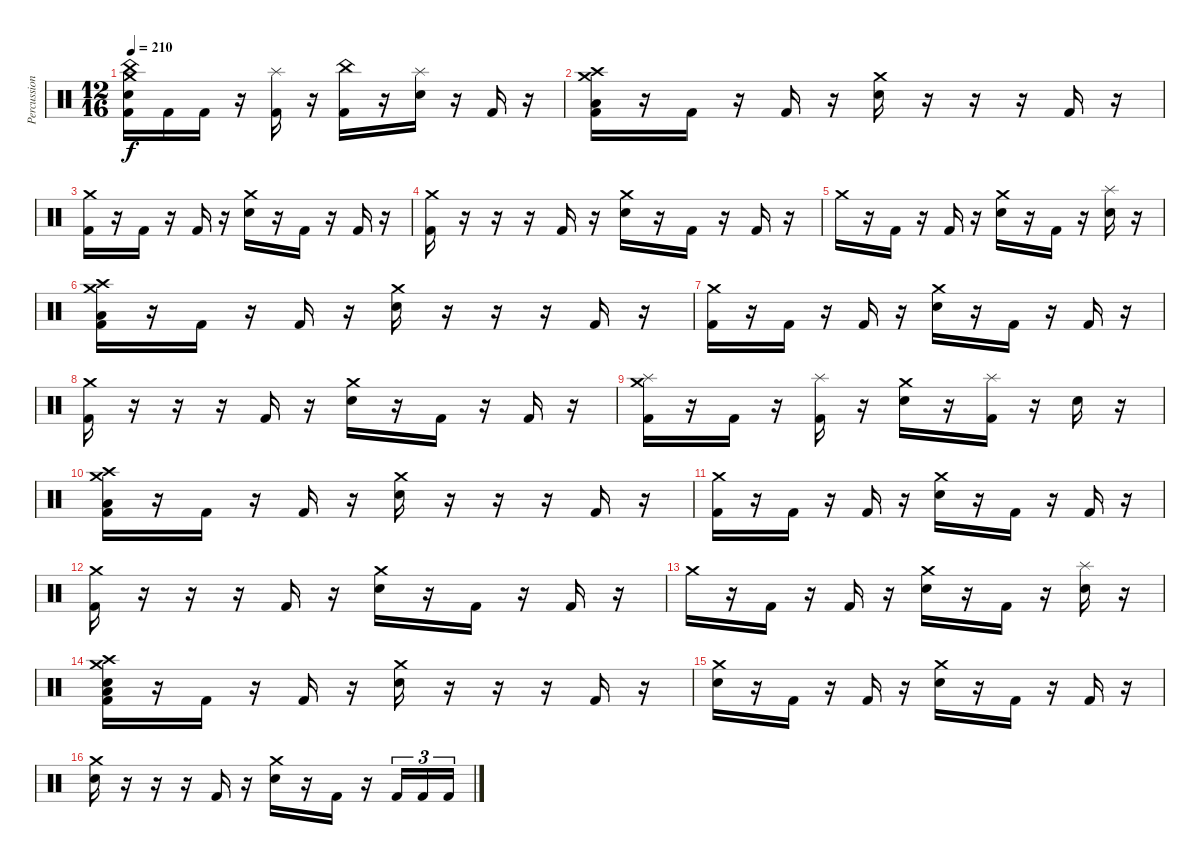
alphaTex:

\track ("Percussion" "Percussion") {instrument percussion}
\staff {score}
\articulation defaults
\ts (12 16)
\tempo 210
\clef neutral
\ks c
("China (hit)" "Crash medium (hit)" "Electric Snare (hit)" "Kick (hit) 2").16{dy f} "Kick (hit) 2".16 "Kick (hit) 2".16 r.16 ("Splash (hit)" "Kick (hit) 2").16 r.16 ("China (hit)" "Kick (hit) 2").16 r.16 ("Splash (hit)" "Electric Snare (hit)").16 r.16 "Kick (hit) 2".16 r.16 |
("Crash medium (hit)" "Crash high (hit)" "Low Floor Tom (hit)" "Kick (hit) 2").16 r.16 "Kick (hit) 2".16 r.16 "Kick (hit) 2".16 r.16 ("Crash medium (hit)" "Electric Snare (hit)").16 r.16 r.16 r.16 "Kick (hit) 2".16 r.16 |
("Crash medium (hit)" "Kick (hit) 2").16 r.16 "Kick (hit) 2".16 r.16 "Kick (hit) 2".16 r.16 ("Crash medium (hit)" "Electric Snare (hit)").16 r.16 "Kick (hit) 2".16 r.16 "Kick (hit) 2".16 r.16 |
("Crash medium (hit)" "Kick (hit) 2").16 r.16 r.16 r.16 "Kick (hit) 2".16 r.16 ("Crash medium (hit)" "Electric Snare (hit)").16 r.16 "Kick (hit) 2".16 r.16 "Kick (hit) 2".16 r.16 |
"Crash medium (hit)".16 r.16 "Kick (hit) 2".16 r.16 "Kick (hit) 2".16 r.16 ("Crash medium (hit)" "Electric Snare (hit)").16 r.16 "Kick (hit) 2".16 r.16 ("Splash (hit)" "Electric Snare (hit)").16 r.16 |
("Crash medium (hit)" "Crash high (hit)" "Low Floor Tom (hit)" "Kick (hit) 2").16 r.16 "Kick (hit) 2".16 r.16 "Kick (hit) 2".16 r.16 ("Crash medium (hit)" "Electric Snare (hit)").16 r.16 r.16 r.16 "Kick (hit) 2".16 r.16 |
("Crash medium (hit)" "Kick (hit) 2").16 r.16 "Kick (hit) 2".16 r.16 "Kick (hit) 2".16 r.16 ("Crash medium (hit)" "Electric Snare (hit)").16 r.16 "Kick (hit) 2".16 r.16 "Kick (hit) 2".16 r.16 |
("Crash medium (hit)" "Kick (hit) 2").16 r.16 r.16 r.16 "Kick (hit) 2".16 r.16 ("Crash medium (hit)" "Electric Snare (hit)").16 r.16 "Kick (hit) 2".16 r.16 "Kick (hit) 2".16 r.16 |
("Crash medium (hit)" "Splash (hit)" "Kick (hit) 2").16 r.16 "Kick (hit) 2".16 r.16 ("Splash (hit)" "Kick (hit) 2").16 r.16 ("Crash medium (hit)" "Electric Snare (hit)").16 r.16 ("Splash (hit)" "Kick (hit) 2").16 r.16 "Electric Snare (hit)".16 r.16 |
("Crash medium (hit)" "Crash high (hit)" "Low Floor Tom (hit)" "Kick (hit) 2").16 r.16 "Kick (hit) 2".16 r.16 "Kick (hit) 2".16 r.16 ("Crash medium (hit)" "Electric Snare (hit)").16 r.16 r.16 r.16 "Kick (hit) 2".16 r.16 |
("Crash medium (hit)" "Kick (hit) 2").16 r.16 "Kick (hit) 2".16 r.16 "Kick (hit) 2".16 r.16 ("Crash medium (hit)" "Electric Snare (hit)").16 r.16 "Kick (hit) 2".16 r.16 "Kick (hit) 2".16 r.16 |
("Crash medium (hit)" "Kick (hit) 2").16 r.16 r.16 r.16 "Kick (hit) 2".16 r.16 ("Crash medium (hit)" "Electric Snare (hit)").16 r.16 "Kick (hit) 2".16 r.16 "Kick (hit) 2".16 r.16 |
"Crash medium (hit)".16 r.16 "Kick (hit) 2".16 r.16 "Kick (hit) 2".16 r.16 ("Crash medium (hit)" "Electric Snare (hit)").16 r.16 "Kick (hit) 2".16 r.16 ("Splash (hit)" "Electric Snare (hit)").16 r.16 |
("Crash medium (hit)" "Crash high (hit)" "Electric Snare (hit)" "Low Floor Tom (hit)" "Kick (hit) 2").16 r.16 "Kick (hit) 2".16 r.16 "Kick (hit) 2".16 r.16 ("Crash medium (hit)" "Electric Snare (hit)").16 r.16 r.16 r.16 "Kick (hit) 2".16 r.16 |
("Crash medium (hit)" "Electric Snare (hit)").16 r.16 "Kick (hit) 2".16 r.16 "Kick (hit) 2".16 r.16 ("Crash medium (hit)" "Electric Snare (hit)").16 r.16 "Kick (hit) 2".16 r.16 "Kick (hit) 2".16 r.16 |
("Crash medium (hit)" "Electric Snare (hit)").16 r.16 r.16 r.16 "Kick (hit) 2".16 r.16 ("Crash medium (hit)" "Electric Snare (hit)").16 r.16 "Kick (hit) 2".16 r.16 "Kick (hit) 2".16{tu (3 2)} "Kick (hit) 2".16{tu (3 2)} "Kick (hit) 2".16{tu (3 2)}
